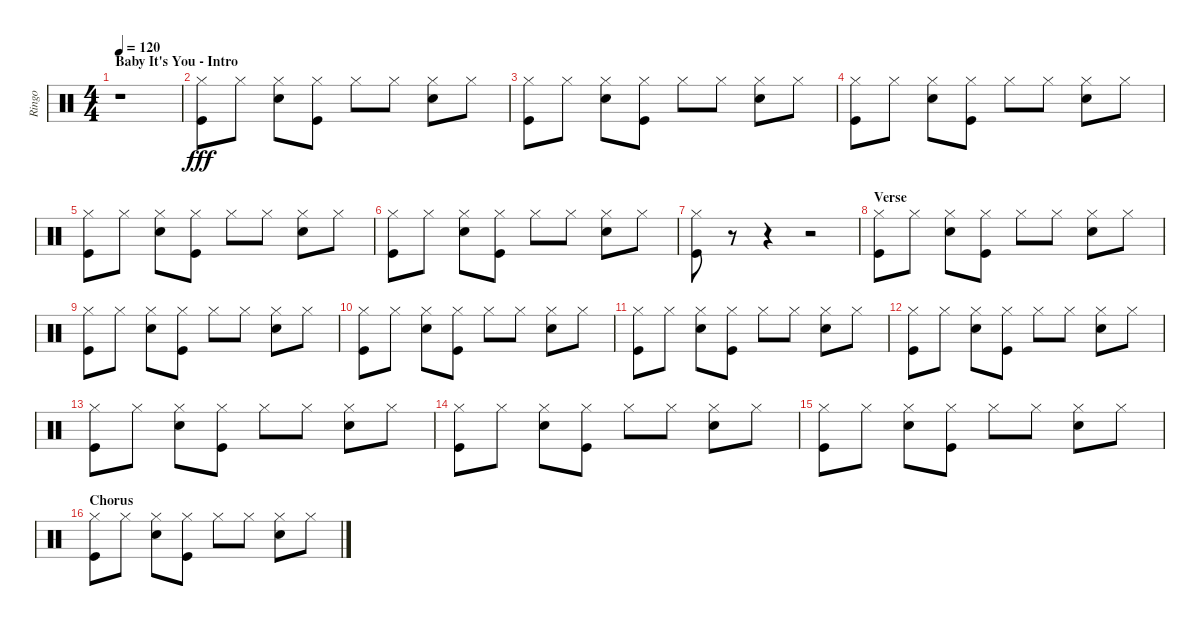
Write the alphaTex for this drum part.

\track ("Ringo" "Ringo") {instrument percussion}
\staff {score}
\articulation defaults
\ts (4 4)
\section ("" "Baby It's You - Intro")
\tempo 120
\clef neutral
\ks c
r.1{dy ff volume 14 balance 10} |
("Hi-Hat (closed)" "Kick (hit)").8{dy fff} "Hi-Hat (closed)".8 ("Hi-Hat (closed)" "Electric Snare (hit)").8 ("Hi-Hat (closed)" "Kick (hit)").8 "Hi-Hat (closed)".8 "Hi-Hat (closed)".8 ("Hi-Hat (closed)" "Electric Snare (hit)").8 "Hi-Hat (closed)".8 |
("Hi-Hat (closed)" "Kick (hit)").8 "Hi-Hat (closed)".8 ("Hi-Hat (closed)" "Electric Snare (hit)").8 ("Hi-Hat (closed)" "Kick (hit)").8 "Hi-Hat (closed)".8 "Hi-Hat (closed)".8 ("Hi-Hat (closed)" "Electric Snare (hit)").8 "Hi-Hat (closed)".8 |
("Hi-Hat (closed)" "Kick (hit)").8 "Hi-Hat (closed)".8 ("Hi-Hat (closed)" "Electric Snare (hit)").8 ("Hi-Hat (closed)" "Kick (hit)").8 "Hi-Hat (closed)".8 "Hi-Hat (closed)".8 ("Hi-Hat (closed)" "Electric Snare (hit)").8 "Hi-Hat (closed)".8 |
("Hi-Hat (closed)" "Kick (hit)").8 "Hi-Hat (closed)".8 ("Hi-Hat (closed)" "Electric Snare (hit)").8 ("Hi-Hat (closed)" "Kick (hit)").8 "Hi-Hat (closed)".8 "Hi-Hat (closed)".8 ("Hi-Hat (closed)" "Electric Snare (hit)").8 "Hi-Hat (closed)".8 |
("Hi-Hat (closed)" "Kick (hit)").8 "Hi-Hat (closed)".8 ("Hi-Hat (closed)" "Electric Snare (hit)").8 ("Hi-Hat (closed)" "Kick (hit)").8 "Hi-Hat (closed)".8 "Hi-Hat (closed)".8 ("Hi-Hat (closed)" "Electric Snare (hit)").8 "Hi-Hat (closed)".8 |
("Hi-Hat (closed)" "Kick (hit)").8 r.8 r.4 r.2 |
\section ("" "Verse")
("Hi-Hat (closed)" "Kick (hit)").8 "Hi-Hat (closed)".8 ("Hi-Hat (closed)" "Electric Snare (hit)").8 ("Hi-Hat (closed)" "Kick (hit)").8 "Hi-Hat (closed)".8 "Hi-Hat (closed)".8 ("Hi-Hat (closed)" "Electric Snare (hit)").8 "Hi-Hat (closed)".8 |
("Hi-Hat (closed)" "Kick (hit)").8 "Hi-Hat (closed)".8 ("Hi-Hat (closed)" "Electric Snare (hit)").8 ("Hi-Hat (closed)" "Kick (hit)").8 "Hi-Hat (closed)".8 "Hi-Hat (closed)".8 ("Hi-Hat (closed)" "Electric Snare (hit)").8 "Hi-Hat (closed)".8 |
("Hi-Hat (closed)" "Kick (hit)").8 "Hi-Hat (closed)".8 ("Hi-Hat (closed)" "Electric Snare (hit)").8 ("Hi-Hat (closed)" "Kick (hit)").8 "Hi-Hat (closed)".8 "Hi-Hat (closed)".8 ("Hi-Hat (closed)" "Electric Snare (hit)").8 "Hi-Hat (closed)".8 |
("Hi-Hat (closed)" "Kick (hit)").8 "Hi-Hat (closed)".8 ("Hi-Hat (closed)" "Electric Snare (hit)").8 ("Hi-Hat (closed)" "Kick (hit)").8 "Hi-Hat (closed)".8 "Hi-Hat (closed)".8 ("Hi-Hat (closed)" "Electric Snare (hit)").8 "Hi-Hat (closed)".8 |
("Hi-Hat (closed)" "Kick (hit)").8 "Hi-Hat (closed)".8 ("Hi-Hat (closed)" "Electric Snare (hit)").8 ("Hi-Hat (closed)" "Kick (hit)").8 "Hi-Hat (closed)".8 "Hi-Hat (closed)".8 ("Hi-Hat (closed)" "Electric Snare (hit)").8 "Hi-Hat (closed)".8 |
("Hi-Hat (closed)" "Kick (hit)").8 "Hi-Hat (closed)".8 ("Hi-Hat (closed)" "Electric Snare (hit)").8 ("Hi-Hat (closed)" "Kick (hit)").8 "Hi-Hat (closed)".8 "Hi-Hat (closed)".8 ("Hi-Hat (closed)" "Electric Snare (hit)").8 "Hi-Hat (closed)".8 |
("Hi-Hat (closed)" "Kick (hit)").8 "Hi-Hat (closed)".8 ("Hi-Hat (closed)" "Electric Snare (hit)").8 ("Hi-Hat (closed)" "Kick (hit)").8 "Hi-Hat (closed)".8 "Hi-Hat (closed)".8 ("Hi-Hat (closed)" "Electric Snare (hit)").8 "Hi-Hat (closed)".8 |
("Hi-Hat (closed)" "Kick (hit)").8 "Hi-Hat (closed)".8 ("Hi-Hat (closed)" "Electric Snare (hit)").8 ("Hi-Hat (closed)" "Kick (hit)").8 "Hi-Hat (closed)".8 "Hi-Hat (closed)".8 ("Hi-Hat (closed)" "Electric Snare (hit)").8 "Hi-Hat (closed)".8 |
\section ("" "Chorus")
("Hi-Hat (closed)" "Kick (hit)").8 "Hi-Hat (closed)".8 ("Hi-Hat (closed)" "Electric Snare (hit)").8 ("Hi-Hat (closed)" "Kick (hit)").8 "Hi-Hat (closed)".8 "Hi-Hat (closed)".8 ("Hi-Hat (closed)" "Electric Snare (hit)").8 "Hi-Hat (closed)".8
